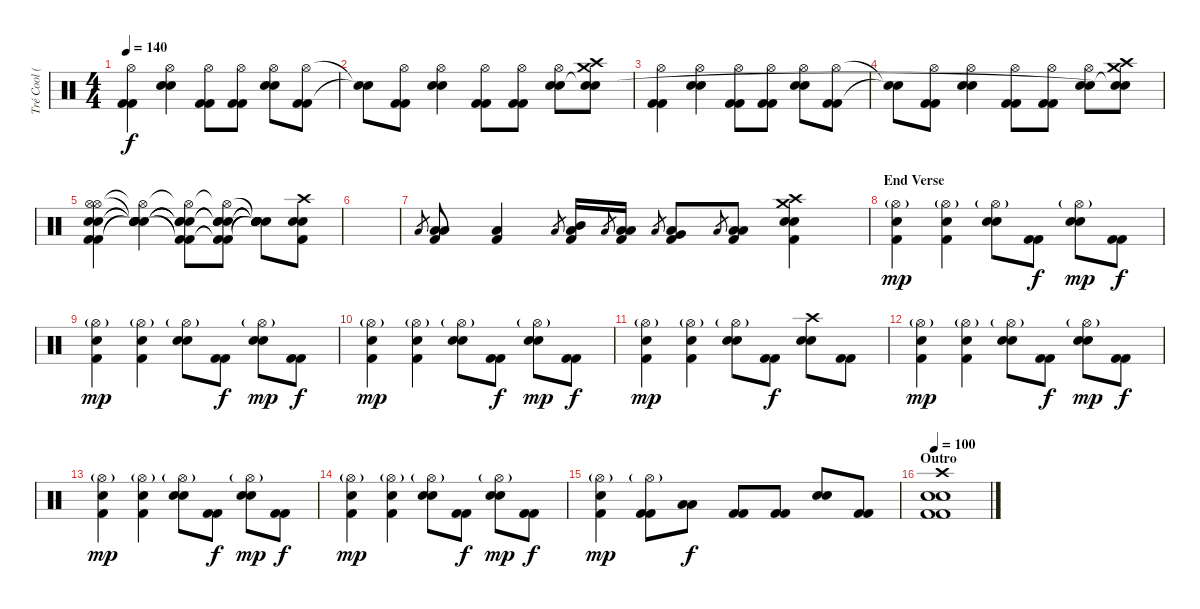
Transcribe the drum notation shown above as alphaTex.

\track ("Tré Cool (Drums)" "Tré Cool (") {instrument percussion}
\staff {score}
\articulation defaults
\ts (4 4)
\tempo 140
\clef neutral
\ks c
("Hi-Hat (open)" "Kick (hit) 2" "Kick (hit) 2").4{dy f} ("Hi-Hat (open)" "Electric Snare (hit)" "Electric Snare (hit)").4 ("Hi-Hat (open)" "Kick (hit) 2" "Kick (hit) 2").8 ("Hi-Hat (open)" "Kick (hit) 2" "Kick (hit) 2").8 ("Hi-Hat (open)" "Electric Snare (hit)" "Electric Snare (hit)").8 ("Hi-Hat (open)" "Kick (hit) 2" "Kick (hit) 2").8 |
("Snare (hit)"{t} "Snare (hit)"{t}).8 ("Hi-Hat (open)" "Kick (hit) 2" "Kick (hit) 2").8 ("Hi-Hat (open)" "Electric Snare (hit)" "Electric Snare (hit)").4 ("Hi-Hat (open)" "Kick (hit) 2" "Kick (hit) 2").8 ("Hi-Hat (open)" "Kick (hit) 2" "Kick (hit) 2").8 ("Hi-Hat (open)" "Electric Snare (hit)" "Electric Snare (hit)").8 ("Crash high (hit)" "Crash medium (hit)" "Snare (hit)"{t} "Snare (hit)"{t}).8 |
("Hi-Hat (open)" "Kick (hit) 2" "Kick (hit) 2").4 ("Hi-Hat (open)" "Electric Snare (hit)" "Electric Snare (hit)").4 ("Hi-Hat (open)" "Kick (hit) 2" "Kick (hit) 2").8 ("Hi-Hat (open)" "Kick (hit) 2" "Kick (hit) 2").8 ("Hi-Hat (open)" "Electric Snare (hit)" "Electric Snare (hit)").8 ("Hi-Hat (open)" "Kick (hit) 2" "Kick (hit) 2").8 |
("Snare (hit)"{t} "Snare (hit)"{t}).8 ("Hi-Hat (open)" "Kick (hit) 2" "Kick (hit) 2").8 ("Hi-Hat (open)" "Electric Snare (hit)" "Electric Snare (hit)").4 ("Hi-Hat (open)" "Kick (hit) 2" "Kick (hit) 2").8 ("Hi-Hat (open)" "Kick (hit) 2" "Kick (hit) 2").8 ("Hi-Hat (open)" "Electric Snare (hit)" "Electric Snare (hit)").8 ("Crash high (hit)" "Crash medium (hit)" "Snare (hit)"{t} "Snare (hit)"{t}).8 |
("Hi-Hat (open)" "Hi-Hat (open)" "Electric Snare (hit)" "Electric Snare (hit)" "Kick (hit) 2" "Kick (hit) 2").4 ("Hi-Hat (open)"{t} "Snare (hit)"{t} "Snare (hit)"{t} "Snare (hit)"{t} "Electric Snare (hit)"{t} "Electric Snare (hit)"{t}).4 ("Hi-Hat (open)"{t} "Snare (hit)"{t} "Snare (hit)"{t} "Snare (hit)"{t} "Kick (hit) 2"{t} "Kick (hit) 2"{t}).8 ("Hi-Hat (open)"{t} "Snare (hit)"{t} "Snare (hit)"{t} "Snare (hit)"{t} "Kick (hit) 2"{t} "Kick (hit) 2"{t}).8 ("Snare (hit)"{t} "Snare (hit)"{t} "Snare (hit)"{t} "Snare (hit)"{t} "Snare (hit)"{t} "Snare (hit)"{t}).8 ("Crash high (hit)" "Electric Snare (hit)" "Electric Snare (hit)" "Kick (hit) 2").8 |
|
"Low Tom (hit)".8{gr} ("Low Tom (hit)" "Low Tom (hit)" "Kick (hit) 2").8 ("Low Floor Tom (hit)" "Kick (hit) 2").4 "Low Tom (hit)".8{gr} ("Mid Tom (hit)" "Low Tom (hit)" "Kick (hit) 2").16 "Low Tom (hit)".8{gr} ("Low Tom (hit)" "Low Tom (hit)" "Kick (hit) 2").16 "Low Tom (hit)".8{gr} ("Very Low Tom (hit)" "Low Tom (hit)" "Kick (hit) 2").8 "Low Tom (hit)".8{gr} ("Low Floor Tom (hit)" "Low Tom (hit)" "Kick (hit) 2").8 ("Crash high (hit)" "Electric Snare (hit)" "Electric Snare (hit)" "Crash medium (hit)" "Kick (hit) 2").4 |
\section ("" "End Verse")
("Hi-Hat (open)"{g} "Electric Snare (hit)" "Kick (hit) 2").4{dy mp} ("Hi-Hat (open)"{g} "Electric Snare (hit)" "Kick (hit) 2").4 ("Hi-Hat (open)"{g} "Electric Snare (hit)" "Electric Snare (hit)").8 ("Kick (hit) 2" "Kick (hit) 2").8{dy f} ("Hi-Hat (open)"{g} "Electric Snare (hit)" "Electric Snare (hit)").8{dy mp} ("Kick (hit) 2" "Kick (hit) 2").8{dy f} |
("Hi-Hat (open)"{g} "Electric Snare (hit)" "Kick (hit) 2").4{dy mp} ("Hi-Hat (open)"{g} "Electric Snare (hit)" "Kick (hit) 2").4 ("Hi-Hat (open)"{g} "Electric Snare (hit)" "Electric Snare (hit)").8 ("Kick (hit) 2" "Kick (hit) 2").8{dy f} ("Hi-Hat (open)"{g} "Electric Snare (hit)" "Electric Snare (hit)").8{dy mp} ("Kick (hit) 2" "Kick (hit) 2").8{dy f} |
("Hi-Hat (open)"{g} "Electric Snare (hit)" "Kick (hit) 2").4{dy mp} ("Hi-Hat (open)"{g} "Electric Snare (hit)" "Kick (hit) 2").4 ("Hi-Hat (open)"{g} "Electric Snare (hit)" "Electric Snare (hit)").8 ("Kick (hit) 2" "Kick (hit) 2").8{dy f} ("Hi-Hat (open)"{g} "Electric Snare (hit)" "Electric Snare (hit)").8{dy mp} ("Kick (hit) 2" "Kick (hit) 2").8{dy f} |
("Hi-Hat (open)"{g} "Electric Snare (hit)" "Kick (hit) 2").4{dy mp} ("Hi-Hat (open)"{g} "Electric Snare (hit)" "Kick (hit) 2").4 ("Hi-Hat (open)"{g} "Electric Snare (hit)" "Electric Snare (hit)").8 ("Kick (hit) 2" "Kick (hit) 2").8{dy f} ("Crash high (hit)" "Electric Snare (hit)" "Electric Snare (hit)").8 ("Kick (hit) 2" "Kick (hit) 2").8 |
("Hi-Hat (open)"{g} "Electric Snare (hit)" "Kick (hit) 2").4{dy mp} ("Hi-Hat (open)"{g} "Electric Snare (hit)" "Kick (hit) 2").4 ("Hi-Hat (open)"{g} "Electric Snare (hit)" "Electric Snare (hit)").8 ("Kick (hit) 2" "Kick (hit) 2").8{dy f} ("Hi-Hat (open)"{g} "Electric Snare (hit)" "Electric Snare (hit)").8{dy mp} ("Kick (hit) 2" "Kick (hit) 2").8{dy f} |
("Hi-Hat (open)"{g} "Electric Snare (hit)" "Kick (hit) 2").4{dy mp} ("Hi-Hat (open)"{g} "Electric Snare (hit)" "Kick (hit) 2").4 ("Hi-Hat (open)"{g} "Electric Snare (hit)" "Electric Snare (hit)").8 ("Kick (hit) 2" "Kick (hit) 2").8{dy f} ("Hi-Hat (open)"{g} "Electric Snare (hit)" "Electric Snare (hit)").8{dy mp} ("Kick (hit) 2" "Kick (hit) 2").8{dy f} |
("Hi-Hat (open)"{g} "Electric Snare (hit)" "Kick (hit) 2").4{dy mp} ("Hi-Hat (open)"{g} "Electric Snare (hit)" "Kick (hit) 2").4 ("Hi-Hat (open)"{g} "Electric Snare (hit)" "Electric Snare (hit)").8 ("Kick (hit) 2" "Kick (hit) 2").8{dy f} ("Hi-Hat (open)"{g} "Electric Snare (hit)" "Electric Snare (hit)").8{dy mp} ("Kick (hit) 2" "Kick (hit) 2").8{dy f} |
("Hi-Hat (open)"{g} "Electric Snare (hit)" "Kick (hit) 2").4{dy mp} ("Hi-Hat (open)"{g} "Kick (hit) 2" "Kick (hit) 2").8 ("Low Tom (hit)" "Low Tom (hit)").8{dy f} ("Kick (hit) 2" "Kick (hit) 2").8 ("Kick (hit) 2" "Kick (hit) 2").8 ("Electric Snare (hit)" "Electric Snare (hit)").8 ("Kick (hit) 2" "Kick (hit) 2").8 |
\section ("" "Outro")
\tempo 100
("Crash high (hit)" "Electric Snare (hit)" "Electric Snare (hit)" "Kick (hit) 2" "Kick (hit) 2").1{volume 0}
